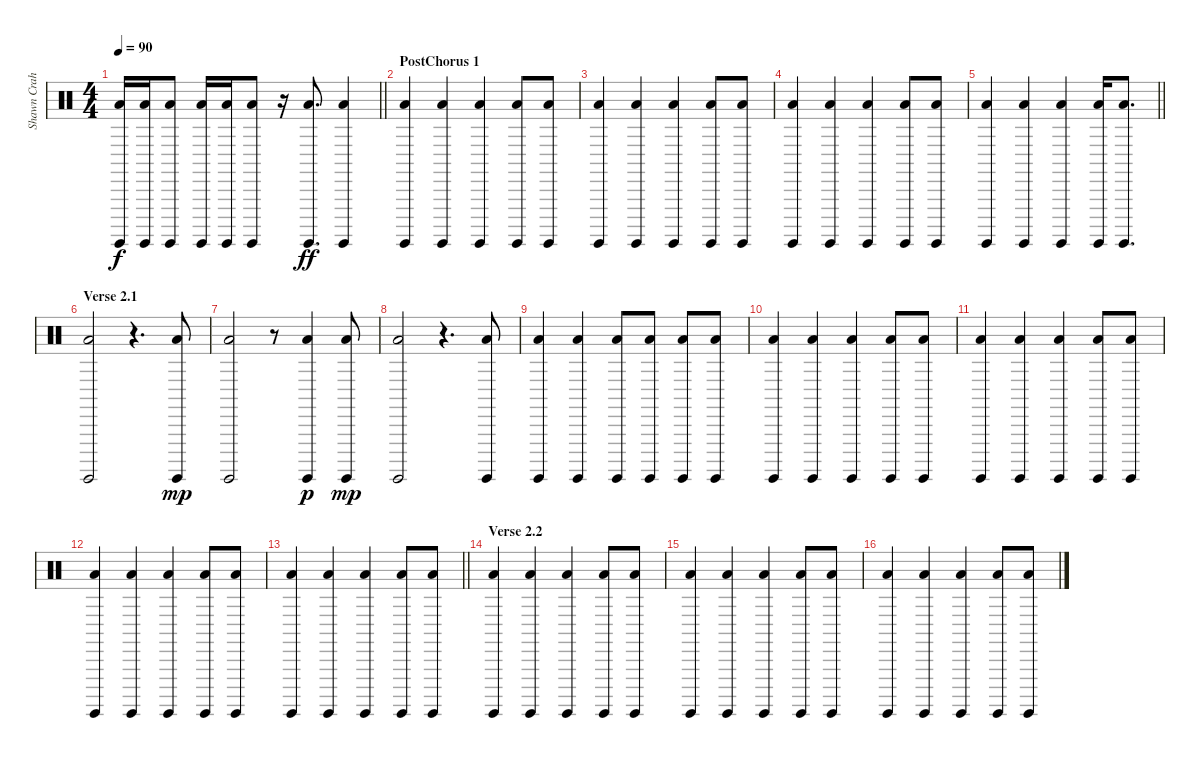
\track ("Shawn Crahan" "Shawn Crah") {instrument percussion}
\staff {score}
\articulation defaults
\ts (4 4)
\tempo 90
\clef neutral
\barLineRight lightlight
\ks c
("Surdo (hit)" "Low Floor Tom (hit)").16{dy f} ("Surdo (hit)" "Low Floor Tom (hit)").16 ("Surdo (hit)" "Low Floor Tom (hit)").8 ("Surdo (hit)" "Low Floor Tom (hit)").16 ("Surdo (hit)" "Low Floor Tom (hit)").16 ("Surdo (hit)" "Low Floor Tom (hit)").8 r.16 ("Surdo (hit)" "Low Floor Tom (hit)").8{d dy ff} ("Surdo (hit)" "Low Floor Tom (hit)").4 |
\section ("" "PostChorus 1")
("Surdo (hit)" "Low Floor Tom (hit)").4 ("Surdo (hit)" "Low Floor Tom (hit)").4 ("Surdo (hit)" "Low Floor Tom (hit)").4 ("Surdo (hit)" "Low Floor Tom (hit)").8 ("Surdo (hit)" "Low Floor Tom (hit)").8 |
("Surdo (hit)" "Low Floor Tom (hit)").4 ("Surdo (hit)" "Low Floor Tom (hit)").4 ("Surdo (hit)" "Low Floor Tom (hit)").4 ("Surdo (hit)" "Low Floor Tom (hit)").8 ("Surdo (hit)" "Low Floor Tom (hit)").8 |
("Surdo (hit)" "Low Floor Tom (hit)").4 ("Surdo (hit)" "Low Floor Tom (hit)").4 ("Surdo (hit)" "Low Floor Tom (hit)").4 ("Surdo (hit)" "Low Floor Tom (hit)").8 ("Surdo (hit)" "Low Floor Tom (hit)").8 |
\barLineRight lightlight
("Surdo (hit)" "Low Floor Tom (hit)").4 ("Surdo (hit)" "Low Floor Tom (hit)").4 ("Surdo (hit)" "Low Floor Tom (hit)").4 ("Surdo (hit)" "Low Floor Tom (hit)").16 ("Surdo (hit)" "Low Floor Tom (hit)").8{d} |
\section ("" "Verse 2.1")
("Surdo (hit)" "Low Floor Tom (hit)").2 r.4{d} ("Surdo (hit)" "Low Floor Tom (hit)").8{dy mp} |
("Surdo (hit)" "Low Floor Tom (hit)").2 r.8 ("Surdo (hit)" "Low Floor Tom (hit)").4{dy p} ("Surdo (hit)" "Low Floor Tom (hit)").8{dy mp} |
("Surdo (hit)" "Low Floor Tom (hit)").2 r.4{d} ("Surdo (hit)" "Low Floor Tom (hit)").8 |
("Surdo (hit)" "Low Floor Tom (hit)").4 ("Surdo (hit)" "Low Floor Tom (hit)").4 ("Surdo (hit)" "Low Floor Tom (hit)").8 ("Surdo (hit)" "Low Floor Tom (hit)").8 ("Surdo (hit)" "Low Floor Tom (hit)").8 ("Surdo (hit)" "Low Floor Tom (hit)").8 |
("Surdo (hit)" "Low Floor Tom (hit)").4 ("Surdo (hit)" "Low Floor Tom (hit)").4 ("Surdo (hit)" "Low Floor Tom (hit)").4 ("Surdo (hit)" "Low Floor Tom (hit)").8 ("Surdo (hit)" "Low Floor Tom (hit)").8 |
("Surdo (hit)" "Low Floor Tom (hit)").4 ("Surdo (hit)" "Low Floor Tom (hit)").4 ("Surdo (hit)" "Low Floor Tom (hit)").4 ("Surdo (hit)" "Low Floor Tom (hit)").8 ("Surdo (hit)" "Low Floor Tom (hit)").8 |
("Surdo (hit)" "Low Floor Tom (hit)").4 ("Surdo (hit)" "Low Floor Tom (hit)").4 ("Surdo (hit)" "Low Floor Tom (hit)").4 ("Surdo (hit)" "Low Floor Tom (hit)").8 ("Surdo (hit)" "Low Floor Tom (hit)").8 |
\barLineRight lightlight
("Surdo (hit)" "Low Floor Tom (hit)").4 ("Surdo (hit)" "Low Floor Tom (hit)").4 ("Surdo (hit)" "Low Floor Tom (hit)").4 ("Surdo (hit)" "Low Floor Tom (hit)").8 ("Surdo (hit)" "Low Floor Tom (hit)").8 |
\section ("" "Verse 2.2")
("Surdo (hit)" "Low Floor Tom (hit)").4 ("Surdo (hit)" "Low Floor Tom (hit)").4 ("Surdo (hit)" "Low Floor Tom (hit)").4 ("Surdo (hit)" "Low Floor Tom (hit)").8 ("Surdo (hit)" "Low Floor Tom (hit)").8 |
("Surdo (hit)" "Low Floor Tom (hit)").4 ("Surdo (hit)" "Low Floor Tom (hit)").4 ("Surdo (hit)" "Low Floor Tom (hit)").4 ("Surdo (hit)" "Low Floor Tom (hit)").8 ("Surdo (hit)" "Low Floor Tom (hit)").8 |
("Surdo (hit)" "Low Floor Tom (hit)").4 ("Surdo (hit)" "Low Floor Tom (hit)").4 ("Surdo (hit)" "Low Floor Tom (hit)").4 ("Surdo (hit)" "Low Floor Tom (hit)").8 ("Surdo (hit)" "Low Floor Tom (hit)").8
